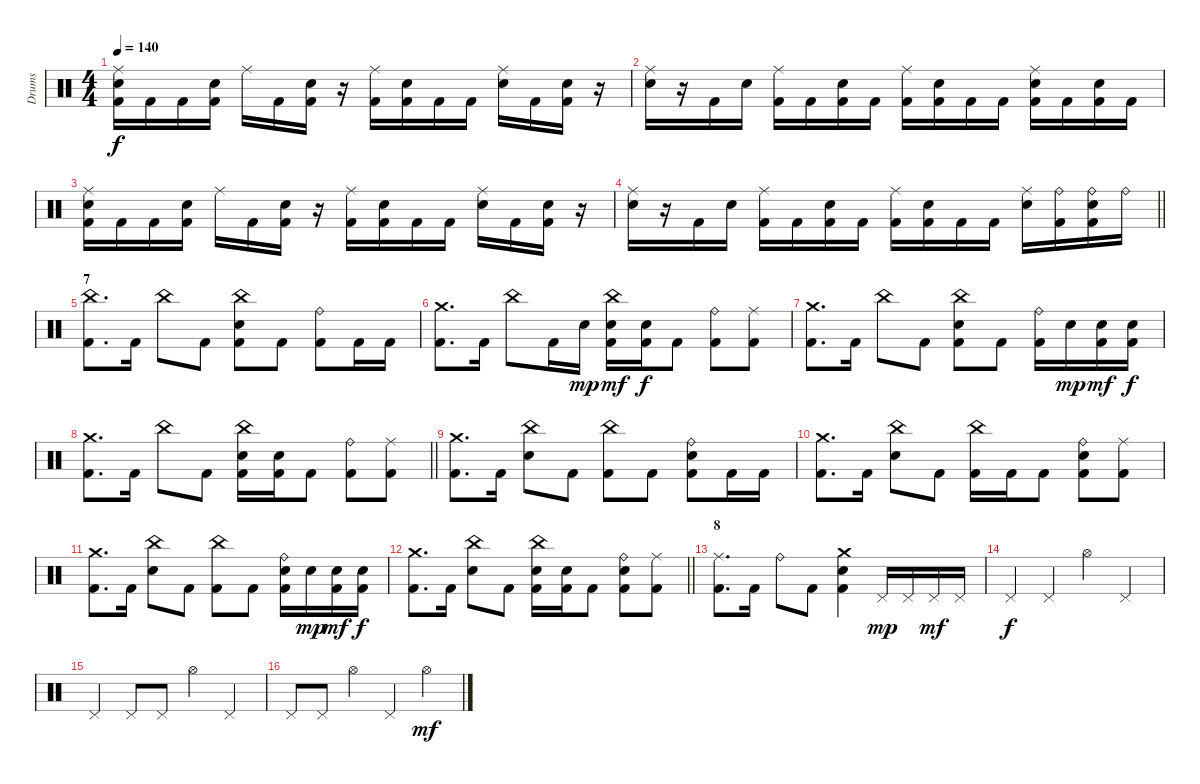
\track ("Drums" "Drums") {instrument percussion}
\staff {score}
\articulation defaults
\ts (4 4)
\tempo 140
\clef neutral
\ks c
("Ride (middle)" "Electric Snare (hit)" "Kick (hit) 2").16{dy f} "Kick (hit) 2".16 "Kick (hit) 2".16 ("Electric Snare (hit)" "Kick (hit) 2").16 "Ride (middle)".16 "Kick (hit) 2".16 ("Electric Snare (hit)" "Kick (hit) 2").16 r.16 ("Ride (middle)" "Kick (hit) 2").16 ("Electric Snare (hit)" "Kick (hit) 2").16 "Kick (hit) 2".16 "Kick (hit) 2".16 ("Ride (middle)" "Electric Snare (hit)").16 "Kick (hit) 2".16 ("Electric Snare (hit)" "Kick (hit) 2").16 r.16 |
("Ride (middle)" "Electric Snare (hit)").16 r.16 "Kick (hit) 2".16 "Electric Snare (hit)".16 ("Ride (middle)" "Kick (hit) 2").16 "Kick (hit) 2".16 ("Electric Snare (hit)" "Kick (hit) 2").16 "Kick (hit) 2".16 ("Ride (middle)" "Kick (hit) 2").16 ("Electric Snare (hit)" "Kick (hit) 2").16 "Kick (hit) 2".16 "Kick (hit) 2".16 ("Ride (middle)" "Electric Snare (hit)" "Kick (hit) 2").16 "Kick (hit) 2".16 ("Electric Snare (hit)" "Kick (hit) 2").16 "Kick (hit) 2".16 |
("Ride (middle)" "Electric Snare (hit)" "Kick (hit) 2").16 "Kick (hit) 2".16 "Kick (hit) 2".16 ("Electric Snare (hit)" "Kick (hit) 2").16 "Ride (middle)".16 "Kick (hit) 2".16 ("Electric Snare (hit)" "Kick (hit) 2").16 r.16 ("Ride (middle)" "Kick (hit) 2").16 ("Electric Snare (hit)" "Kick (hit) 2").16 "Kick (hit) 2".16 "Kick (hit) 2".16 ("Ride (middle)" "Electric Snare (hit)").16 "Kick (hit) 2".16 ("Electric Snare (hit)" "Kick (hit) 2").16 r.16 |
\barLineRight lightlight
("Ride (middle)" "Electric Snare (hit)").16 r.16 "Kick (hit) 2".16 "Electric Snare (hit)".16 ("Ride (middle)" "Kick (hit) 2").16 "Kick (hit) 2".16 ("Electric Snare (hit)" "Kick (hit) 2").16 "Kick (hit) 2".16 ("Ride (middle)" "Kick (hit) 2").16 ("Electric Snare (hit)" "Kick (hit) 2").16 "Kick (hit) 2".16 "Kick (hit) 2".16 ("Ride (middle)" "Electric Snare (hit)").16 ("Ride (bell)" "Kick (hit) 2").16 ("Ride (bell)" "Electric Snare (hit)" "Kick (hit) 2").16 "Ride (bell)".16 |
\section ("" "7")
("Kick (hit) 2" "China (hit)").8{d} "Kick (hit) 2".16 "China (hit)".8 "Kick (hit) 2".8 ("China (hit)" "Electric Snare (hit)" "Kick (hit) 2").8 "Kick (hit) 2".8 ("Ride (bell)" "Kick (hit) 2").8 "Kick (hit) 2".16 "Kick (hit) 2".16 |
("Crash medium (hit)" "Kick (hit) 2").8{d} "Kick (hit) 2".16 "China (hit)".8 "Kick (hit) 2".16 "Electric Snare (hit)".16{dy mp} ("China (hit)" "Electric Snare (hit)" "Kick (hit) 2").16{dy mf} ("Electric Snare (hit)" "Kick (hit) 2").16{dy f} "Kick (hit) 2".8 ("Ride (bell)" "Kick (hit) 2").8 ("Ride (middle)" "Kick (hit) 2").8 |
("Crash medium (hit)" "Kick (hit) 2").8{d} "Kick (hit) 2".16 "China (hit)".8 "Kick (hit) 2".8 ("China (hit)" "Electric Snare (hit)" "Kick (hit) 2").8 "Kick (hit) 2".8 ("Ride (bell)" "Kick (hit) 2").16 "Electric Snare (hit)".16{dy mp} ("Electric Snare (hit)" "Kick (hit) 2").16{dy mf} ("Electric Snare (hit)" "Kick (hit) 2").16{dy f} |
\barLineRight lightlight
("Crash medium (hit)" "Kick (hit) 2").8{d} "Kick (hit) 2".16 "China (hit)".8 "Kick (hit) 2".8 ("China (hit)" "Electric Snare (hit)" "Kick (hit) 2").16 ("Electric Snare (hit)" "Kick (hit) 2").16 "Kick (hit) 2".8 ("Ride (bell)" "Kick (hit) 2").8 ("Ride (middle)" "Kick (hit) 2").8 |
("Crash medium (hit)" "Kick (hit) 2").8{d} "Kick (hit) 2".16 ("China (hit)" "Electric Snare (hit)").8 "Kick (hit) 2".8 ("China (hit)" "Kick (hit) 2").8 "Kick (hit) 2".8 ("Ride (bell)" "Electric Snare (hit)" "Kick (hit) 2").8 "Kick (hit) 2".16 "Kick (hit) 2".16 |
("Crash medium (hit)" "Kick (hit) 2").8{d} "Kick (hit) 2".16 ("China (hit)" "Electric Snare (hit)").8 "Kick (hit) 2".8 ("China (hit)" "Kick (hit) 2").16 "Kick (hit) 2".16 "Kick (hit) 2".8 ("Ride (bell)" "Electric Snare (hit)" "Kick (hit) 2").8 ("Ride (middle)" "Kick (hit) 2").8 |
("Crash medium (hit)" "Kick (hit) 2").8{d} "Kick (hit) 2".16 ("China (hit)" "Electric Snare (hit)").8 "Kick (hit) 2".8 ("China (hit)" "Kick (hit) 2").8 "Kick (hit) 2".8 ("Ride (bell)" "Electric Snare (hit)" "Kick (hit) 2").16 "Electric Snare (hit)".16{dy mp} ("Electric Snare (hit)" "Kick (hit) 2").16{dy mf} ("Electric Snare (hit)" "Kick (hit) 2").16{dy f} |
\barLineRight lightlight
("Crash medium (hit)" "Kick (hit) 2").8{d} "Kick (hit) 2".16 ("China (hit)" "Electric Snare (hit)").8 "Kick (hit) 2".8 ("China (hit)" "Electric Snare (hit)" "Kick (hit) 2").16 ("Electric Snare (hit)" "Kick (hit) 2").16 "Kick (hit) 2".8 ("Ride (bell)" "Electric Snare (hit)" "Kick (hit) 2").8 ("Ride (middle)" "Kick (hit) 2").8 |
\section ("" "8")
("Ride (middle)" "Kick (hit) 2").8{d} "Kick (hit) 2".16 "Ride (bell)".8 "Kick (hit) 2".8 ("Crash medium (hit)" "Electric Snare (hit)" "Kick (hit) 2").4 "Pedal Hi-Hat (hit)".16{dy mp} "Pedal Hi-Hat (hit)".16 "Pedal Hi-Hat (hit)".16{dy mf} "Pedal Hi-Hat (hit)".16 |
"Pedal Hi-Hat (hit)".4{dy f} "Pedal Hi-Hat (hit)".4 "Hi-Hat (open)".4 "Pedal Hi-Hat (hit)".4 |
"Pedal Hi-Hat (hit)".4 "Pedal Hi-Hat (hit)".8 "Pedal Hi-Hat (hit)".8 "Hi-Hat (open)".4 "Pedal Hi-Hat (hit)".4 |
"Pedal Hi-Hat (hit)".8 "Pedal Hi-Hat (hit)".8 "Hi-Hat (open)".4 "Pedal Hi-Hat (hit)".4 "Hi-Hat (open)".4{dy mf}
